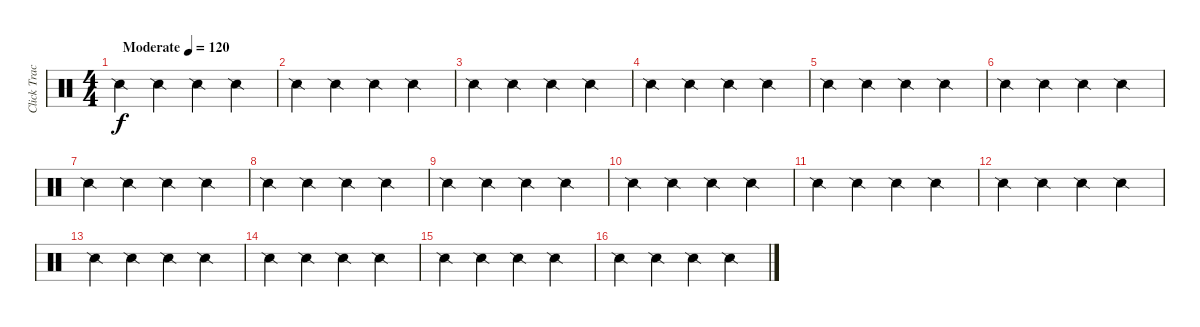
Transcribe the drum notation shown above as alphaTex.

\track ("Click Track" "Click Trac") {instrument percussion}
\staff {score}
\articulation defaults
\ts (4 4)
\tempo (120 "Moderate")
\tempo 210
\tempo (120 "Moderate")
\clef neutral
\ks c "Snare (side stick) 2".4{dy f} "Snare (side stick) 2".4 "Snare (side stick) 2".4 "Snare (side stick) 2".4
|
"Snare (side stick) 2".4 "Snare (side stick) 2".4 "Snare (side stick) 2".4 "Snare (side stick) 2".4 |
"Snare (side stick) 2".4 "Snare (side stick) 2".4 "Snare (side stick) 2".4 "Snare (side stick) 2".4 |
"Snare (side stick) 2".4 "Snare (side stick) 2".4 "Snare (side stick) 2".4 "Snare (side stick) 2".4 |
"Snare (side stick) 2".4 "Snare (side stick) 2".4 "Snare (side stick) 2".4 "Snare (side stick) 2".4 |
"Snare (side stick) 2".4 "Snare (side stick) 2".4 "Snare (side stick) 2".4 "Snare (side stick) 2".4 |
"Snare (side stick) 2".4 "Snare (side stick) 2".4 "Snare (side stick) 2".4 "Snare (side stick) 2".4 |
"Snare (side stick) 2".4 "Snare (side stick) 2".4 "Snare (side stick) 2".4 "Snare (side stick) 2".4 |
"Snare (side stick) 2".4 "Snare (side stick) 2".4 "Snare (side stick) 2".4 "Snare (side stick) 2".4 |
"Snare (side stick) 2".4 "Snare (side stick) 2".4 "Snare (side stick) 2".4 "Snare (side stick) 2".4 |
"Snare (side stick) 2".4 "Snare (side stick) 2".4 "Snare (side stick) 2".4 "Snare (side stick) 2".4 |
"Snare (side stick) 2".4 "Snare (side stick) 2".4 "Snare (side stick) 2".4 "Snare (side stick) 2".4 |
"Snare (side stick) 2".4 "Snare (side stick) 2".4 "Snare (side stick) 2".4 "Snare (side stick) 2".4 |
"Snare (side stick) 2".4 "Snare (side stick) 2".4 "Snare (side stick) 2".4 "Snare (side stick) 2".4 |
"Snare (side stick) 2".4 "Snare (side stick) 2".4 "Snare (side stick) 2".4 "Snare (side stick) 2".4 |
"Snare (side stick) 2".4 "Snare (side stick) 2".4 "Snare (side stick) 2".4 "Snare (side stick) 2".4
